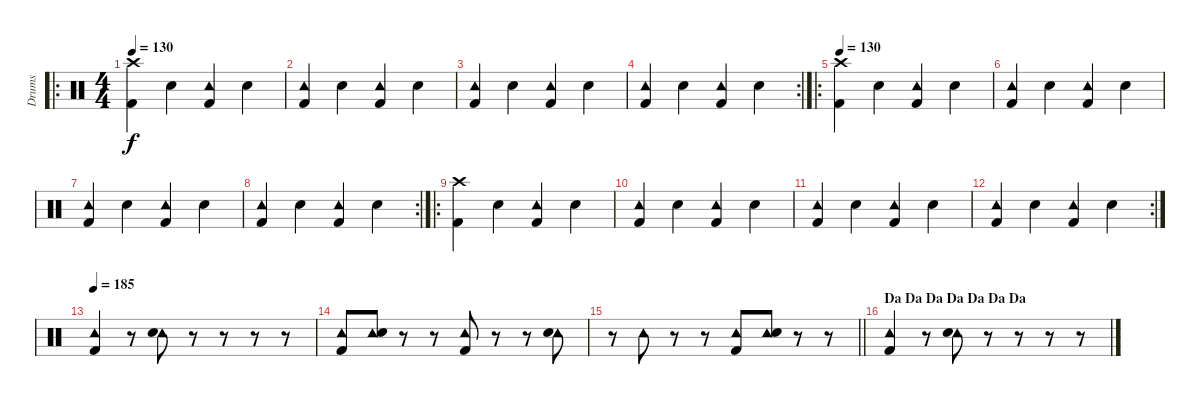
\track ("Drums" "Drums") {instrument percussion}
\staff {score}
\articulation defaults
\ro
\ts (4 4)
\tempo 130
\clef neutral
\ks c
("Crash high (hit)" "Kick (hit) 2").4{dy f} "Snare (hit) 2".4 ("Tambourine (hit)" "Kick (hit) 2").4 "Snare (hit) 2".4 |
("Tambourine (hit)" "Kick (hit) 2").4 "Snare (hit) 2".4 ("Tambourine (hit)" "Kick (hit) 2").4 "Snare (hit) 2".4 |
("Tambourine (hit)" "Kick (hit) 2").4 "Snare (hit) 2".4 ("Tambourine (hit)" "Kick (hit) 2").4 "Snare (hit) 2".4 |
\rc 2
("Tambourine (hit)" "Kick (hit) 2").4 "Snare (hit) 2".4 ("Tambourine (hit)" "Kick (hit) 2").4 "Snare (hit) 2".4 |
\ro
\tempo 130
("Crash high (hit)" "Kick (hit) 2").4 "Snare (hit) 2".4 ("Tambourine (hit)" "Kick (hit) 2").4 "Snare (hit) 2".4 |
("Tambourine (hit)" "Kick (hit) 2").4 "Snare (hit) 2".4 ("Tambourine (hit)" "Kick (hit) 2").4 "Snare (hit) 2".4 |
("Tambourine (hit)" "Kick (hit) 2").4 "Snare (hit) 2".4 ("Tambourine (hit)" "Kick (hit) 2").4 "Snare (hit) 2".4 |
\rc 2
("Tambourine (hit)" "Kick (hit) 2").4 "Snare (hit) 2".4 ("Tambourine (hit)" "Kick (hit) 2").4 "Snare (hit) 2".4 |
\ro
("Crash high (hit)" "Kick (hit) 2").4 "Snare (hit) 2".4 ("Tambourine (hit)" "Kick (hit) 2").4 "Snare (hit) 2".4 |
("Tambourine (hit)" "Kick (hit) 2").4 "Snare (hit) 2".4 ("Tambourine (hit)" "Kick (hit) 2").4 "Snare (hit) 2".4 |
("Tambourine (hit)" "Kick (hit) 2").4 "Snare (hit) 2".4 ("Tambourine (hit)" "Kick (hit) 2").4 "Snare (hit) 2".4 |
\rc 2
("Tambourine (hit)" "Kick (hit) 2").4 "Snare (hit) 2".4 ("Tambourine (hit)" "Kick (hit) 2").4 "Snare (hit) 2".4 |
\tempo 185
("Tambourine (hit)" "Kick (hit) 2").4 r.8 ("Tambourine (hit)" "Snare (hit) 2").8 r.8 r.8 r.8 r.8 |
("Tambourine (hit)" "Kick (hit) 2").8 ("Tambourine (hit)" "Snare (hit) 2").8 r.8 r.8 ("Tambourine (hit)" "Kick (hit) 2").8 r.8 r.8 ("Tambourine (hit)" "Snare (hit) 2").8 |
\barLineRight lightlight
r.8 "Tambourine (hit)".8 r.8 r.8 ("Tambourine (hit)" "Kick (hit) 2").8 ("Tambourine (hit)" "Snare (hit) 2").8 r.8 r.8 |
\section ("" "Da Da Da Da Da Da Da")
("Tambourine (hit)" "Kick (hit) 2").4 r.8 ("Tambourine (hit)" "Snare (hit) 2").8 r.8 r.8 r.8 r.8
